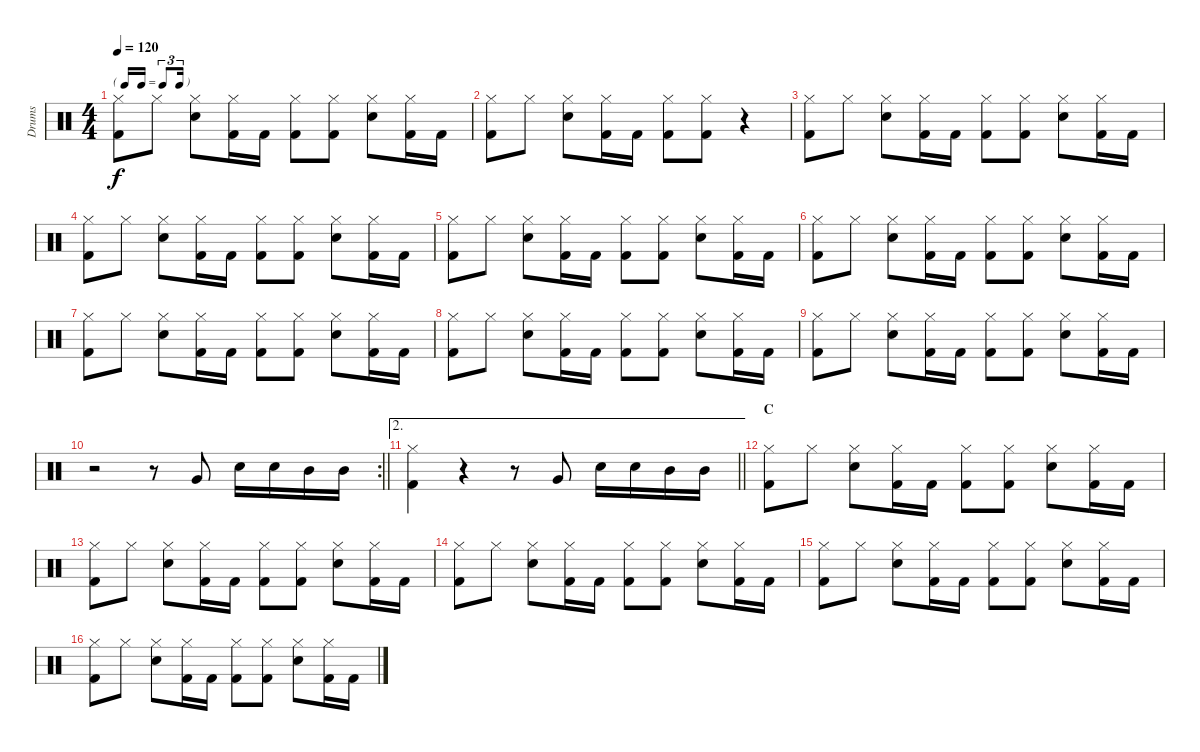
\track ("Drums" "Drums") {instrument percussion}
\staff {score}
\articulation defaults
\ts (4 4)
\tf triplet16th
\tempo 120
\clef neutral
\ks c
("Hi-Hat (closed)" "Kick (hit) 2").8{dy f} "Hi-Hat (closed)".8 ("Hi-Hat (closed)" "Snare (hit) 2").8 ("Hi-Hat (closed)" "Kick (hit) 2").16 "Kick (hit) 2".16 ("Hi-Hat (closed)" "Kick (hit) 2").8 ("Hi-Hat (closed)" "Kick (hit) 2").8 ("Hi-Hat (closed)" "Snare (hit) 2").8 ("Hi-Hat (closed)" "Kick (hit) 2").16 "Kick (hit) 2".16 |
("Hi-Hat (closed)" "Kick (hit) 2").8 "Hi-Hat (closed)".8 ("Hi-Hat (closed)" "Snare (hit) 2").8 ("Hi-Hat (closed)" "Kick (hit) 2").16 "Kick (hit) 2".16 ("Hi-Hat (closed)" "Kick (hit) 2").8 ("Hi-Hat (closed)" "Kick (hit) 2").8 r.4 |
("Hi-Hat (closed)" "Kick (hit) 2").8 "Hi-Hat (closed)".8 ("Hi-Hat (closed)" "Snare (hit) 2").8 ("Hi-Hat (closed)" "Kick (hit) 2").16 "Kick (hit) 2".16 ("Hi-Hat (closed)" "Kick (hit) 2").8 ("Hi-Hat (closed)" "Kick (hit) 2").8 ("Hi-Hat (closed)" "Snare (hit) 2").8 ("Hi-Hat (closed)" "Kick (hit) 2").16 "Kick (hit) 2".16 |
("Hi-Hat (closed)" "Kick (hit) 2").8 "Hi-Hat (closed)".8 ("Hi-Hat (closed)" "Snare (hit) 2").8 ("Hi-Hat (closed)" "Kick (hit) 2").16 "Kick (hit) 2".16 ("Hi-Hat (closed)" "Kick (hit) 2").8 ("Hi-Hat (closed)" "Kick (hit) 2").8 ("Hi-Hat (closed)" "Snare (hit) 2").8 ("Hi-Hat (closed)" "Kick (hit) 2").16 "Kick (hit) 2".16 |
("Hi-Hat (closed)" "Kick (hit) 2").8 "Hi-Hat (closed)".8 ("Hi-Hat (closed)" "Snare (hit) 2").8 ("Hi-Hat (closed)" "Kick (hit) 2").16 "Kick (hit) 2".16 ("Hi-Hat (closed)" "Kick (hit) 2").8 ("Hi-Hat (closed)" "Kick (hit) 2").8 ("Hi-Hat (closed)" "Snare (hit) 2").8 ("Hi-Hat (closed)" "Kick (hit) 2").16 "Kick (hit) 2".16 |
("Hi-Hat (closed)" "Kick (hit) 2").8 "Hi-Hat (closed)".8 ("Hi-Hat (closed)" "Snare (hit) 2").8 ("Hi-Hat (closed)" "Kick (hit) 2").16 "Kick (hit) 2".16 ("Hi-Hat (closed)" "Kick (hit) 2").8 ("Hi-Hat (closed)" "Kick (hit) 2").8 ("Hi-Hat (closed)" "Snare (hit) 2").8 ("Hi-Hat (closed)" "Kick (hit) 2").16 "Kick (hit) 2".16 |
("Hi-Hat (closed)" "Kick (hit) 2").8 "Hi-Hat (closed)".8 ("Hi-Hat (closed)" "Snare (hit) 2").8 ("Hi-Hat (closed)" "Kick (hit) 2").16 "Kick (hit) 2".16 ("Hi-Hat (closed)" "Kick (hit) 2").8 ("Hi-Hat (closed)" "Kick (hit) 2").8 ("Hi-Hat (closed)" "Snare (hit) 2").8 ("Hi-Hat (closed)" "Kick (hit) 2").16 "Kick (hit) 2".16 |
("Hi-Hat (closed)" "Kick (hit) 2").8 "Hi-Hat (closed)".8 ("Hi-Hat (closed)" "Snare (hit) 2").8 ("Hi-Hat (closed)" "Kick (hit) 2").16 "Kick (hit) 2".16 ("Hi-Hat (closed)" "Kick (hit) 2").8 ("Hi-Hat (closed)" "Kick (hit) 2").8 ("Hi-Hat (closed)" "Snare (hit) 2").8 ("Hi-Hat (closed)" "Kick (hit) 2").16 "Kick (hit) 2".16 |
("Hi-Hat (closed)" "Kick (hit) 2").8 "Hi-Hat (closed)".8 ("Hi-Hat (closed)" "Snare (hit) 2").8 ("Hi-Hat (closed)" "Kick (hit) 2").16 "Kick (hit) 2".16 ("Hi-Hat (closed)" "Kick (hit) 2").8 ("Hi-Hat (closed)" "Kick (hit) 2").8 ("Hi-Hat (closed)" "Snare (hit) 2").8 ("Hi-Hat (closed)" "Kick (hit) 2").16 "Kick (hit) 2".16 |
\rc 2
\barLineRight lightlight
r.2 r.8 "Very Low Tom (hit)".8 "Snare (hit) 2".16 "Snare (hit) 2".16 "Mid Tom (hit)".16 "Mid Tom (hit)".16 |
\ae 2
\barLineRight lightlight
("Hi-Hat (closed)" "Kick (hit) 2").4 r.4 r.8 "Very Low Tom (hit)".8 "Snare (hit) 2".16 "Snare (hit) 2".16 "Mid Tom (hit)".16 "Mid Tom (hit)".16 |
\section ("" "C")
("Hi-Hat (closed)" "Kick (hit) 2").8 "Hi-Hat (closed)".8 ("Hi-Hat (closed)" "Snare (hit) 2").8 ("Hi-Hat (closed)" "Kick (hit) 2").16 "Kick (hit) 2".16 ("Hi-Hat (closed)" "Kick (hit) 2").8 ("Hi-Hat (closed)" "Kick (hit) 2").8 ("Hi-Hat (closed)" "Snare (hit) 2").8 ("Hi-Hat (closed)" "Kick (hit) 2").16 "Kick (hit) 2".16 |
("Hi-Hat (closed)" "Kick (hit) 2").8 "Hi-Hat (closed)".8 ("Hi-Hat (closed)" "Snare (hit) 2").8 ("Hi-Hat (closed)" "Kick (hit) 2").16 "Kick (hit) 2".16 ("Hi-Hat (closed)" "Kick (hit) 2").8 ("Hi-Hat (closed)" "Kick (hit) 2").8 ("Hi-Hat (closed)" "Snare (hit) 2").8 ("Hi-Hat (closed)" "Kick (hit) 2").16 "Kick (hit) 2".16 |
("Hi-Hat (closed)" "Kick (hit) 2").8 "Hi-Hat (closed)".8 ("Hi-Hat (closed)" "Snare (hit) 2").8 ("Hi-Hat (closed)" "Kick (hit) 2").16 "Kick (hit) 2".16 ("Hi-Hat (closed)" "Kick (hit) 2").8 ("Hi-Hat (closed)" "Kick (hit) 2").8 ("Hi-Hat (closed)" "Snare (hit) 2").8 ("Hi-Hat (closed)" "Kick (hit) 2").16 "Kick (hit) 2".16 |
("Hi-Hat (closed)" "Kick (hit) 2").8 "Hi-Hat (closed)".8 ("Hi-Hat (closed)" "Snare (hit) 2").8 ("Hi-Hat (closed)" "Kick (hit) 2").16 "Kick (hit) 2".16 ("Hi-Hat (closed)" "Kick (hit) 2").8 ("Hi-Hat (closed)" "Kick (hit) 2").8 ("Hi-Hat (closed)" "Snare (hit) 2").8 ("Hi-Hat (closed)" "Kick (hit) 2").16 "Kick (hit) 2".16 |
("Hi-Hat (closed)" "Kick (hit) 2").8 "Hi-Hat (closed)".8 ("Hi-Hat (closed)" "Snare (hit) 2").8 ("Hi-Hat (closed)" "Kick (hit) 2").16 "Kick (hit) 2".16 ("Hi-Hat (closed)" "Kick (hit) 2").8 ("Hi-Hat (closed)" "Kick (hit) 2").8 ("Hi-Hat (closed)" "Snare (hit) 2").8 ("Hi-Hat (closed)" "Kick (hit) 2").16 "Kick (hit) 2".16
